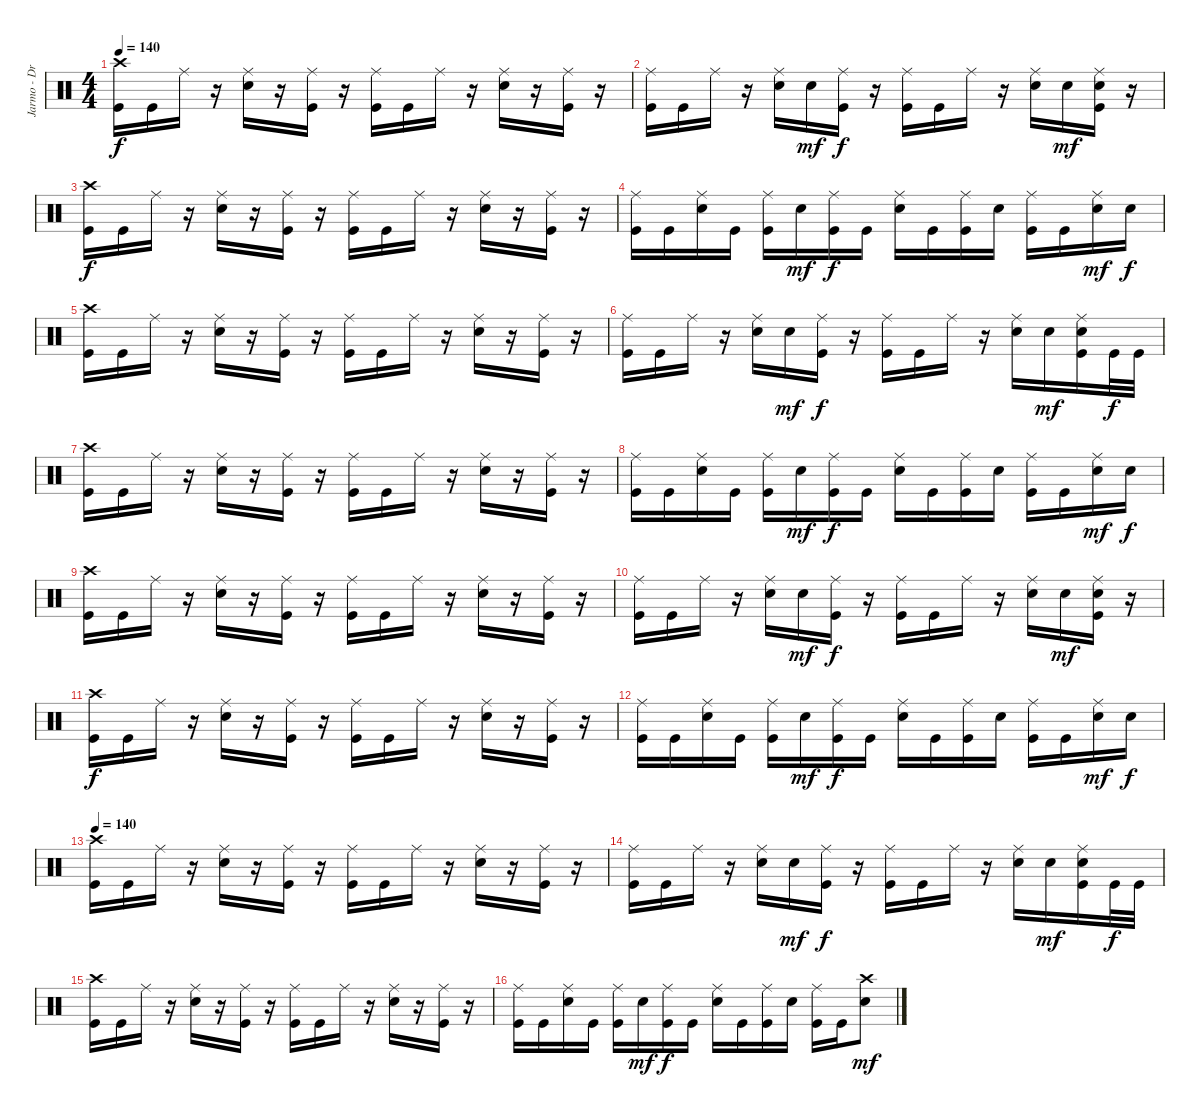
\track ("Jarmo - Drums" "Jarmo - Dr") {instrument percussion}
\staff {score}
\articulation defaults
\ts (4 4)
\tempo 140
\clef neutral
\ks c
("Kick (hit)" "Crash high (hit)").16{dy f} "Kick (hit)".16 "Ride (middle)".16 r.16 ("Electric Snare (hit)" "Ride (middle)").16 r.16 ("Kick (hit)" "Ride (middle)").16 r.16 ("Kick (hit)" "Ride (middle)").16 "Kick (hit)".16 "Ride (middle)".16 r.16 ("Electric Snare (hit)" "Ride (middle)").16 r.16 ("Kick (hit)" "Ride (middle)").16 r.16 |
("Kick (hit)" "Ride (middle)").16 "Kick (hit)".16 "Ride (middle)".16 r.16 ("Electric Snare (hit)" "Ride (middle)").16 "Electric Snare (hit)".16{dy mf} ("Kick (hit)" "Ride (middle)").16{dy f} r.16 ("Kick (hit)" "Ride (middle)").16 "Kick (hit)".16 "Ride (middle)".16 r.16 ("Electric Snare (hit)" "Ride (middle)").16 "Electric Snare (hit)".16{dy mf} ("Kick (hit)" "Electric Snare (hit)" "Ride (middle)").16 r.16 |
("Kick (hit)" "Crash high (hit)").16{dy f} "Kick (hit)".16 "Ride (middle)".16 r.16 ("Electric Snare (hit)" "Ride (middle)").16 r.16 ("Kick (hit)" "Ride (middle)").16 r.16 ("Kick (hit)" "Ride (middle)").16 "Kick (hit)".16 "Ride (middle)".16 r.16 ("Electric Snare (hit)" "Ride (middle)").16 r.16 ("Kick (hit)" "Ride (middle)").16 r.16 |
("Kick (hit)" "Ride (middle)").16 "Kick (hit)".16 ("Electric Snare (hit)" "Ride (middle)").16 "Kick (hit)".16 ("Kick (hit)" "Ride (middle)").16 "Electric Snare (hit)".16{dy mf} ("Kick (hit)" "Ride (middle)").16{dy f} "Kick (hit)".16 ("Electric Snare (hit)" "Ride (middle)").16 "Kick (hit)".16 ("Kick (hit)" "Ride (middle)").16 "Electric Snare (hit)".16 ("Kick (hit)" "Ride (middle)").16 "Kick (hit)".16 ("Electric Snare (hit)" "Ride (middle)").16{dy mf} "Electric Snare (hit)".16{dy f} |
("Kick (hit)" "Crash high (hit)").16 "Kick (hit)".16 "Ride (middle)".16 r.16 ("Electric Snare (hit)" "Ride (middle)").16 r.16 ("Kick (hit)" "Ride (middle)").16 r.16 ("Kick (hit)" "Ride (middle)").16 "Kick (hit)".16 "Ride (middle)".16 r.16 ("Electric Snare (hit)" "Ride (middle)").16 r.16 ("Kick (hit)" "Ride (middle)").16 r.16 |
("Kick (hit)" "Ride (middle)").16 "Kick (hit)".16 "Ride (middle)".16 r.16 ("Electric Snare (hit)" "Ride (middle)").16 "Electric Snare (hit)".16{dy mf} ("Kick (hit)" "Ride (middle)").16{dy f} r.16 ("Kick (hit)" "Ride (middle)").16 "Kick (hit)".16 "Ride (middle)".16 r.16 ("Electric Snare (hit)" "Ride (middle)").16 "Electric Snare (hit)".16{dy mf} ("Kick (hit)" "Electric Snare (hit)" "Ride (middle)").16 "Kick (hit)".32{dy f} "Kick (hit)".32 |
("Kick (hit)" "Crash high (hit)").16 "Kick (hit)".16 "Ride (middle)".16 r.16 ("Electric Snare (hit)" "Ride (middle)").16 r.16 ("Kick (hit)" "Ride (middle)").16 r.16 ("Kick (hit)" "Ride (middle)").16 "Kick (hit)".16 "Ride (middle)".16 r.16 ("Electric Snare (hit)" "Ride (middle)").16 r.16 ("Kick (hit)" "Ride (middle)").16 r.16 |
("Kick (hit)" "Ride (middle)").16 "Kick (hit)".16 ("Electric Snare (hit)" "Ride (middle)").16 "Kick (hit)".16 ("Kick (hit)" "Ride (middle)").16 "Electric Snare (hit)".16{dy mf} ("Kick (hit)" "Ride (middle)").16{dy f} "Kick (hit)".16 ("Electric Snare (hit)" "Ride (middle)").16 "Kick (hit)".16 ("Kick (hit)" "Ride (middle)").16 "Electric Snare (hit)".16 ("Kick (hit)" "Ride (middle)").16 "Kick (hit)".16 ("Electric Snare (hit)" "Ride (middle)").16{dy mf} "Electric Snare (hit)".16{dy f} |
("Kick (hit)" "Crash high (hit)").16 "Kick (hit)".16 "Ride (middle)".16 r.16 ("Electric Snare (hit)" "Ride (middle)").16 r.16 ("Kick (hit)" "Ride (middle)").16 r.16 ("Kick (hit)" "Ride (middle)").16 "Kick (hit)".16 "Ride (middle)".16 r.16 ("Electric Snare (hit)" "Ride (middle)").16 r.16 ("Kick (hit)" "Ride (middle)").16 r.16 |
("Kick (hit)" "Ride (middle)").16 "Kick (hit)".16 "Ride (middle)".16 r.16 ("Electric Snare (hit)" "Ride (middle)").16 "Electric Snare (hit)".16{dy mf} ("Kick (hit)" "Ride (middle)").16{dy f} r.16 ("Kick (hit)" "Ride (middle)").16 "Kick (hit)".16 "Ride (middle)".16 r.16 ("Electric Snare (hit)" "Ride (middle)").16 "Electric Snare (hit)".16{dy mf} ("Kick (hit)" "Electric Snare (hit)" "Ride (middle)").16 r.16 |
("Kick (hit)" "Crash high (hit)").16{dy f} "Kick (hit)".16 "Ride (middle)".16 r.16 ("Electric Snare (hit)" "Ride (middle)").16 r.16 ("Kick (hit)" "Ride (middle)").16 r.16 ("Kick (hit)" "Ride (middle)").16 "Kick (hit)".16 "Ride (middle)".16 r.16 ("Electric Snare (hit)" "Ride (middle)").16 r.16 ("Kick (hit)" "Ride (middle)").16 r.16 |
("Kick (hit)" "Ride (middle)").16 "Kick (hit)".16 ("Electric Snare (hit)" "Ride (middle)").16 "Kick (hit)".16 ("Kick (hit)" "Ride (middle)").16 "Electric Snare (hit)".16{dy mf} ("Kick (hit)" "Ride (middle)").16{dy f} "Kick (hit)".16 ("Electric Snare (hit)" "Ride (middle)").16 "Kick (hit)".16 ("Kick (hit)" "Ride (middle)").16 "Electric Snare (hit)".16 ("Kick (hit)" "Ride (middle)").16 "Kick (hit)".16 ("Electric Snare (hit)" "Ride (middle)").16{dy mf} "Electric Snare (hit)".16{dy f} |
\tempo 140
("Kick (hit)" "Crash high (hit)").16 "Kick (hit)".16 "Ride (middle)".16 r.16 ("Electric Snare (hit)" "Ride (middle)").16 r.16 ("Kick (hit)" "Ride (middle)").16 r.16 ("Kick (hit)" "Ride (middle)").16 "Kick (hit)".16 "Ride (middle)".16 r.16 ("Electric Snare (hit)" "Ride (middle)").16 r.16 ("Kick (hit)" "Ride (middle)").16 r.16 |
("Kick (hit)" "Ride (middle)").16 "Kick (hit)".16 "Ride (middle)".16 r.16 ("Electric Snare (hit)" "Ride (middle)").16 "Electric Snare (hit)".16{dy mf} ("Kick (hit)" "Ride (middle)").16{dy f} r.16 ("Kick (hit)" "Ride (middle)").16 "Kick (hit)".16 "Ride (middle)".16 r.16 ("Electric Snare (hit)" "Ride (middle)").16 "Electric Snare (hit)".16{dy mf} ("Kick (hit)" "Electric Snare (hit)" "Ride (middle)").16 "Kick (hit)".32{dy f} "Kick (hit)".32 |
("Kick (hit)" "Crash high (hit)").16 "Kick (hit)".16 "Ride (middle)".16 r.16 ("Electric Snare (hit)" "Ride (middle)").16 r.16 ("Kick (hit)" "Ride (middle)").16 r.16 ("Kick (hit)" "Ride (middle)").16 "Kick (hit)".16 "Ride (middle)".16 r.16 ("Electric Snare (hit)" "Ride (middle)").16 r.16 ("Kick (hit)" "Ride (middle)").16 r.16 |
("Kick (hit)" "Ride (middle)").16 "Kick (hit)".16 ("Electric Snare (hit)" "Ride (middle)").16 "Kick (hit)".16 ("Kick (hit)" "Ride (middle)").16 "Electric Snare (hit)".16{dy mf} ("Kick (hit)" "Ride (middle)").16{dy f} "Kick (hit)".16 ("Electric Snare (hit)" "Ride (middle)").16 "Kick (hit)".16 ("Kick (hit)" "Ride (middle)").16 "Electric Snare (hit)".16 ("Kick (hit)" "Ride (middle)").16 "Kick (hit)".16 ("Electric Snare (hit)" "Crash high (hit)").8{dy mf}
